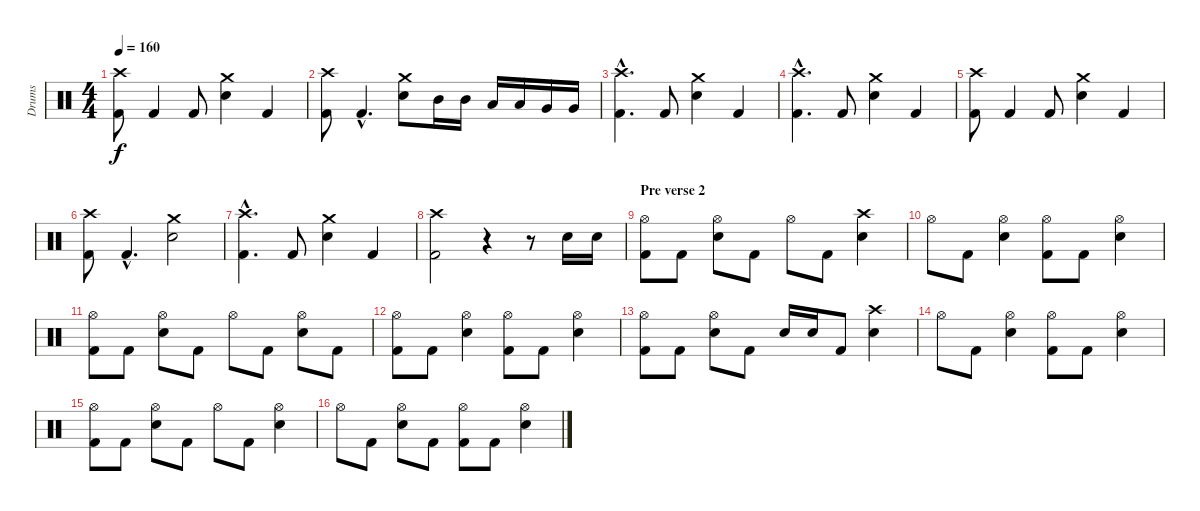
\track ("Drums" "Drums") {instrument percussion}
\staff {score}
\articulation defaults
\ts (4 4)
\tempo 160
\clef neutral
\ks c
("Kick (hit) 2" "Crash high (hit)").8{dy f} "Kick (hit) 2".4 "Kick (hit) 2".8 ("Electric Snare (hit)" "Crash medium (hit)").4 "Kick (hit) 2".4 |
("Kick (hit) 2" "Crash high (hit)").8 "Kick (hit) 2"{hac}.4{d} ("Electric Snare (hit)" "Crash medium (hit)").8 "Mid Tom (hit)".16 "Mid Tom (hit)".16 "Low Tom (hit)".16 "Low Tom (hit)".16 "Very Low Tom (hit)".16 "Very Low Tom (hit)".16 |
("Kick (hit) 2"{hac} "Crash high (hit)"{hac}).4{d} "Kick (hit) 2".8 ("Electric Snare (hit)" "Crash medium (hit)").4 "Kick (hit) 2".4 |
("Kick (hit) 2"{hac} "Crash high (hit)"{hac}).4{d} "Kick (hit) 2".8 ("Electric Snare (hit)" "Crash medium (hit)").4 "Kick (hit) 2".4 |
("Kick (hit) 2" "Crash high (hit)").8 "Kick (hit) 2".4 "Kick (hit) 2".8 ("Electric Snare (hit)" "Crash medium (hit)").4 "Kick (hit) 2".4 |
("Kick (hit) 2" "Crash high (hit)").8 "Kick (hit) 2"{hac}.4{d} ("Electric Snare (hit)" "Crash medium (hit)").2 |
("Kick (hit) 2"{hac} "Crash high (hit)"{hac}).4{d} "Kick (hit) 2".8 ("Electric Snare (hit)" "Crash medium (hit)").4 "Kick (hit) 2".4 |
("Kick (hit) 2" "Crash high (hit)").2 r.4 r.8 "Electric Snare (hit)".16 "Electric Snare (hit)".16 |
\section ("" "Pre verse 2")
("Kick (hit) 2" "Hi-Hat (open)").8 "Kick (hit) 2".8 ("Electric Snare (hit)" "Hi-Hat (open)").8 "Kick (hit) 2".8 "Hi-Hat (open)".8 "Kick (hit) 2".8 ("Electric Snare (hit)" "Crash high (hit)").4 |
"Hi-Hat (open)".8 "Kick (hit) 2".8 ("Electric Snare (hit)" "Hi-Hat (open)").4 ("Kick (hit) 2" "Hi-Hat (open)").8 "Kick (hit) 2".8 ("Electric Snare (hit)" "Hi-Hat (open)").4 |
("Kick (hit) 2" "Hi-Hat (open)").8 "Kick (hit) 2".8 ("Electric Snare (hit)" "Hi-Hat (open)").8 "Kick (hit) 2".8 "Hi-Hat (open)".8 "Kick (hit) 2".8 ("Electric Snare (hit)" "Hi-Hat (open)").8 "Kick (hit) 2".8 |
("Kick (hit) 2" "Hi-Hat (open)").8 "Kick (hit) 2".8 ("Electric Snare (hit)" "Hi-Hat (open)").4 ("Kick (hit) 2" "Hi-Hat (open)").8 "Kick (hit) 2".8 ("Electric Snare (hit)" "Hi-Hat (open)").4 |
("Kick (hit) 2" "Hi-Hat (open)").8 "Kick (hit) 2".8 ("Electric Snare (hit)" "Hi-Hat (open)").8 "Kick (hit) 2".8 "Electric Snare (hit)".16 "Electric Snare (hit)".16 "Kick (hit) 2".8 ("Electric Snare (hit)" "Crash high (hit)").4 |
"Hi-Hat (open)".8 "Kick (hit) 2".8 ("Electric Snare (hit)" "Hi-Hat (open)").4 ("Kick (hit) 2" "Hi-Hat (open)").8 "Kick (hit) 2".8 ("Electric Snare (hit)" "Hi-Hat (open)").4 |
("Kick (hit) 2" "Hi-Hat (open)").8 "Kick (hit) 2".8 ("Electric Snare (hit)" "Hi-Hat (open)").8 "Kick (hit) 2".8 "Hi-Hat (open)".8 "Kick (hit) 2".8 ("Electric Snare (hit)" "Hi-Hat (open)").4 |
"Hi-Hat (open)".8 "Kick (hit) 2".8 ("Electric Snare (hit)" "Hi-Hat (open)").8 "Kick (hit) 2".8 ("Kick (hit) 2" "Hi-Hat (open)").8 "Kick (hit) 2".8 ("Electric Snare (hit)" "Hi-Hat (open)").4
